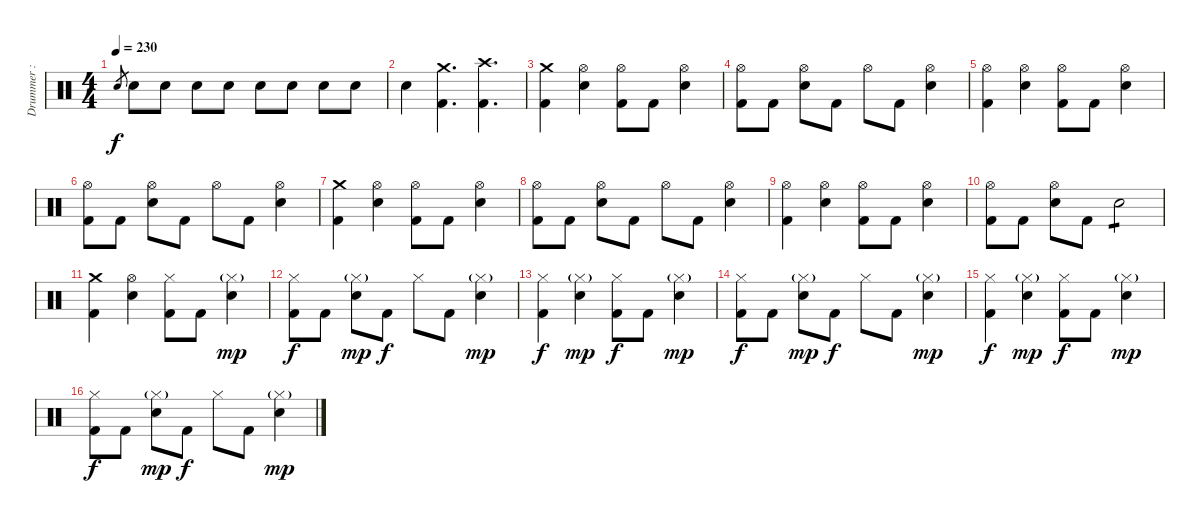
\track ("Drummer : Tainaka Ritsu - Swan" "Drummer : ") {instrument percussion}
\staff {score}
\articulation defaults
\ts (4 4)
\tempo 230
\clef neutral
\ks c "Electric Snare (hit)".8{gr dy f} "Electric Snare (hit)".8 "Electric Snare (hit)".8 "Electric Snare (hit)".8 "Electric Snare (hit)".8 "Electric Snare (hit)".8 "Electric Snare (hit)".8 "Electric Snare (hit)".8 "Electric Snare (hit)".8
|
"Electric Snare (hit)".4 ("Crash medium (hit)" "Kick (hit) 2").4{d} ("Crash high (hit)" "Kick (hit) 2").4{d} |
("Crash medium (hit)" "Kick (hit) 2").4 ("Hi-Hat (open)" "Electric Snare (hit)").4 ("Hi-Hat (open)" "Kick (hit) 2").8 "Kick (hit) 2".8 ("Hi-Hat (open)" "Electric Snare (hit)").4 |
("Hi-Hat (open)" "Kick (hit) 2").8 "Kick (hit) 2".8 ("Hi-Hat (open)" "Electric Snare (hit)").8 "Kick (hit) 2".8 "Hi-Hat (open)".8 "Kick (hit) 2".8 ("Hi-Hat (open)" "Electric Snare (hit)").4 |
("Hi-Hat (open)" "Kick (hit) 2").4 ("Hi-Hat (open)" "Electric Snare (hit)").4 ("Hi-Hat (open)" "Kick (hit) 2").8 "Kick (hit) 2".8 ("Hi-Hat (open)" "Electric Snare (hit)").4 |
("Hi-Hat (open)" "Kick (hit) 2").8 "Kick (hit) 2".8 ("Hi-Hat (open)" "Electric Snare (hit)").8 "Kick (hit) 2".8 "Hi-Hat (open)".8 "Kick (hit) 2".8 ("Hi-Hat (open)" "Electric Snare (hit)").4 |
("Crash medium (hit)" "Kick (hit) 2").4 ("Hi-Hat (open)" "Electric Snare (hit)").4 ("Hi-Hat (open)" "Kick (hit) 2").8 "Kick (hit) 2".8 ("Hi-Hat (open)" "Electric Snare (hit)").4 |
("Hi-Hat (open)" "Kick (hit) 2").8 "Kick (hit) 2".8 ("Hi-Hat (open)" "Electric Snare (hit)").8 "Kick (hit) 2".8 "Hi-Hat (open)".8 "Kick (hit) 2".8 ("Hi-Hat (open)" "Electric Snare (hit)").4 |
("Hi-Hat (open)" "Kick (hit) 2").4 ("Hi-Hat (open)" "Electric Snare (hit)").4 ("Hi-Hat (open)" "Kick (hit) 2").8 "Kick (hit) 2".8 ("Hi-Hat (open)" "Electric Snare (hit)").4 |
("Hi-Hat (open)" "Kick (hit) 2").8 "Kick (hit) 2".8 ("Hi-Hat (open)" "Electric Snare (hit)").8 "Kick (hit) 2".8 "Electric Snare (hit)".2{tp 1} |
("Crash medium (hit)" "Kick (hit) 2").4 ("Hi-Hat (open)" "Electric Snare (hit)").4 ("Hi-Hat (closed)" "Kick (hit) 2").8 "Kick (hit) 2".8 ("Hi-Hat (closed)"{g} "Electric Snare (hit)").4{dy mp} |
("Hi-Hat (closed)" "Kick (hit) 2").8{dy f} "Kick (hit) 2".8 ("Hi-Hat (closed)"{g} "Electric Snare (hit)").8{dy mp} "Kick (hit) 2".8{dy f} "Hi-Hat (closed)".8 "Kick (hit) 2".8 ("Hi-Hat (closed)"{g} "Electric Snare (hit)").4{dy mp} |
("Hi-Hat (closed)" "Kick (hit) 2").4{dy f} ("Hi-Hat (closed)"{g} "Electric Snare (hit)").4{dy mp} ("Hi-Hat (closed)" "Kick (hit) 2").8{dy f} "Kick (hit) 2".8 ("Hi-Hat (closed)"{g} "Electric Snare (hit)").4{dy mp} |
("Hi-Hat (closed)" "Kick (hit) 2").8{dy f} "Kick (hit) 2".8 ("Hi-Hat (closed)"{g} "Electric Snare (hit)").8{dy mp} "Kick (hit) 2".8{dy f} "Hi-Hat (closed)".8 "Kick (hit) 2".8 ("Hi-Hat (closed)"{g} "Electric Snare (hit)").4{dy mp} |
("Hi-Hat (closed)" "Kick (hit) 2").4{dy f} ("Hi-Hat (closed)"{g} "Electric Snare (hit)").4{dy mp} ("Hi-Hat (closed)" "Kick (hit) 2").8{dy f} "Kick (hit) 2".8 ("Hi-Hat (closed)"{g} "Electric Snare (hit)").4{dy mp} |
("Hi-Hat (closed)" "Kick (hit) 2").8{dy f} "Kick (hit) 2".8 ("Hi-Hat (closed)"{g} "Electric Snare (hit)").8{dy mp} "Kick (hit) 2".8{dy f} "Hi-Hat (closed)".8 "Kick (hit) 2".8 ("Hi-Hat (closed)"{g} "Electric Snare (hit)").4{dy mp}
